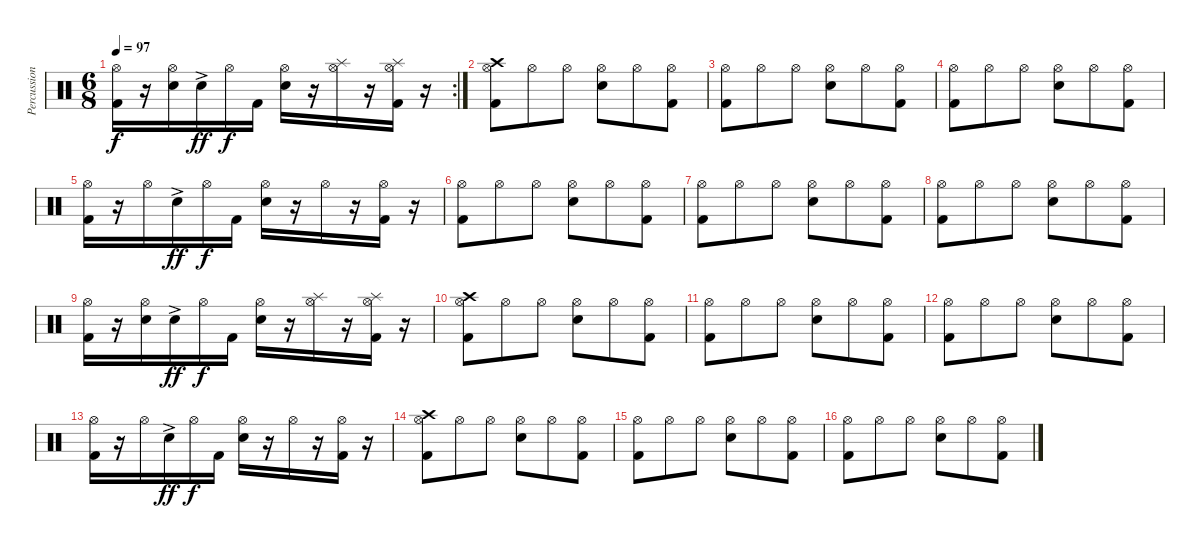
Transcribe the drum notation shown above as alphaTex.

\track ("Percussion" "Percussion") {instrument percussion}
\staff {score}
\articulation defaults
\rc 2
\ts (6 8)
\tempo 97
\clef neutral
\ks c
("Hi-Hat (open)" "Kick (hit) 2").16{dy f} r.16 ("Hi-Hat (open)" "Electric Snare (hit)").16 "Electric Snare (hit)"{ac}.16{dy ff} "Hi-Hat (open)".16{dy f} "Kick (hit) 2".16 ("Hi-Hat (open)" "Electric Snare (hit)").16 r.16 ("Splash (hit)" "Hi-Hat (open)").16 r.16 ("Splash (hit)" "Hi-Hat (open)" "Kick (hit) 2").16 r.16 |
("Crash high (hit)" "Hi-Hat (open)" "Kick (hit) 2").8 "Hi-Hat (open)".8 "Hi-Hat (open)".8 ("Hi-Hat (open)" "Electric Snare (hit)").8 "Hi-Hat (open)".8 ("Hi-Hat (open)" "Kick (hit) 2").8 |
("Hi-Hat (open)" "Kick (hit) 2").8 "Hi-Hat (open)".8 "Hi-Hat (open)".8 ("Hi-Hat (open)" "Electric Snare (hit)").8 "Hi-Hat (open)".8 ("Hi-Hat (open)" "Kick (hit) 2").8 |
("Hi-Hat (open)" "Kick (hit) 2").8 "Hi-Hat (open)".8 "Hi-Hat (open)".8 ("Hi-Hat (open)" "Electric Snare (hit)").8 "Hi-Hat (open)".8 ("Hi-Hat (open)" "Kick (hit) 2").8 |
("Hi-Hat (open)" "Kick (hit) 2").16 r.16 "Hi-Hat (open)".16 "Electric Snare (hit)"{ac}.16{dy ff} "Hi-Hat (open)".16{dy f} "Kick (hit) 2".16 ("Hi-Hat (open)" "Electric Snare (hit)").16 r.16 "Hi-Hat (open)".16 r.16 ("Hi-Hat (open)" "Kick (hit) 2").16 r.16 |
("Hi-Hat (open)" "Kick (hit) 2").8 "Hi-Hat (open)".8 "Hi-Hat (open)".8 ("Hi-Hat (open)" "Electric Snare (hit)").8 "Hi-Hat (open)".8 ("Hi-Hat (open)" "Kick (hit) 2").8 |
("Hi-Hat (open)" "Kick (hit) 2").8 "Hi-Hat (open)".8 "Hi-Hat (open)".8 ("Hi-Hat (open)" "Electric Snare (hit)").8 "Hi-Hat (open)".8 ("Hi-Hat (open)" "Kick (hit) 2").8 |
("Hi-Hat (open)" "Kick (hit) 2").8 "Hi-Hat (open)".8 "Hi-Hat (open)".8 ("Hi-Hat (open)" "Electric Snare (hit)").8 "Hi-Hat (open)".8 ("Hi-Hat (open)" "Kick (hit) 2").8 |
("Hi-Hat (open)" "Kick (hit) 2").16 r.16 ("Hi-Hat (open)" "Electric Snare (hit)").16 "Electric Snare (hit)"{ac}.16{dy ff} "Hi-Hat (open)".16{dy f} "Kick (hit) 2".16 ("Hi-Hat (open)" "Electric Snare (hit)").16 r.16 ("Splash (hit)" "Hi-Hat (open)").16 r.16 ("Splash (hit)" "Hi-Hat (open)" "Kick (hit) 2").16 r.16 |
("Crash high (hit)" "Hi-Hat (open)" "Kick (hit) 2").8 "Hi-Hat (open)".8 "Hi-Hat (open)".8 ("Hi-Hat (open)" "Electric Snare (hit)").8 "Hi-Hat (open)".8 ("Hi-Hat (open)" "Kick (hit) 2").8 |
("Hi-Hat (open)" "Kick (hit) 2").8 "Hi-Hat (open)".8 "Hi-Hat (open)".8 ("Hi-Hat (open)" "Electric Snare (hit)").8 "Hi-Hat (open)".8 ("Hi-Hat (open)" "Kick (hit) 2").8 |
("Hi-Hat (open)" "Kick (hit) 2").8 "Hi-Hat (open)".8 "Hi-Hat (open)".8 ("Hi-Hat (open)" "Electric Snare (hit)").8 "Hi-Hat (open)".8 ("Hi-Hat (open)" "Kick (hit) 2").8 |
("Hi-Hat (open)" "Kick (hit) 2").16 r.16 "Hi-Hat (open)".16 "Electric Snare (hit)"{ac}.16{dy ff} "Hi-Hat (open)".16{dy f} "Kick (hit) 2".16 ("Hi-Hat (open)" "Electric Snare (hit)").16 r.16 "Hi-Hat (open)".16 r.16 ("Hi-Hat (open)" "Kick (hit) 2").16 r.16 |
("Crash high (hit)" "Hi-Hat (open)" "Kick (hit) 2").8 "Hi-Hat (open)".8 "Hi-Hat (open)".8 ("Hi-Hat (open)" "Electric Snare (hit)").8 "Hi-Hat (open)".8 ("Hi-Hat (open)" "Kick (hit) 2").8 |
("Hi-Hat (open)" "Kick (hit) 2").8 "Hi-Hat (open)".8 "Hi-Hat (open)".8 ("Hi-Hat (open)" "Electric Snare (hit)").8 "Hi-Hat (open)".8 ("Hi-Hat (open)" "Kick (hit) 2").8 |
("Hi-Hat (open)" "Kick (hit) 2").8 "Hi-Hat (open)".8 "Hi-Hat (open)".8 ("Hi-Hat (open)" "Electric Snare (hit)").8 "Hi-Hat (open)".8 ("Hi-Hat (open)" "Kick (hit) 2").8
